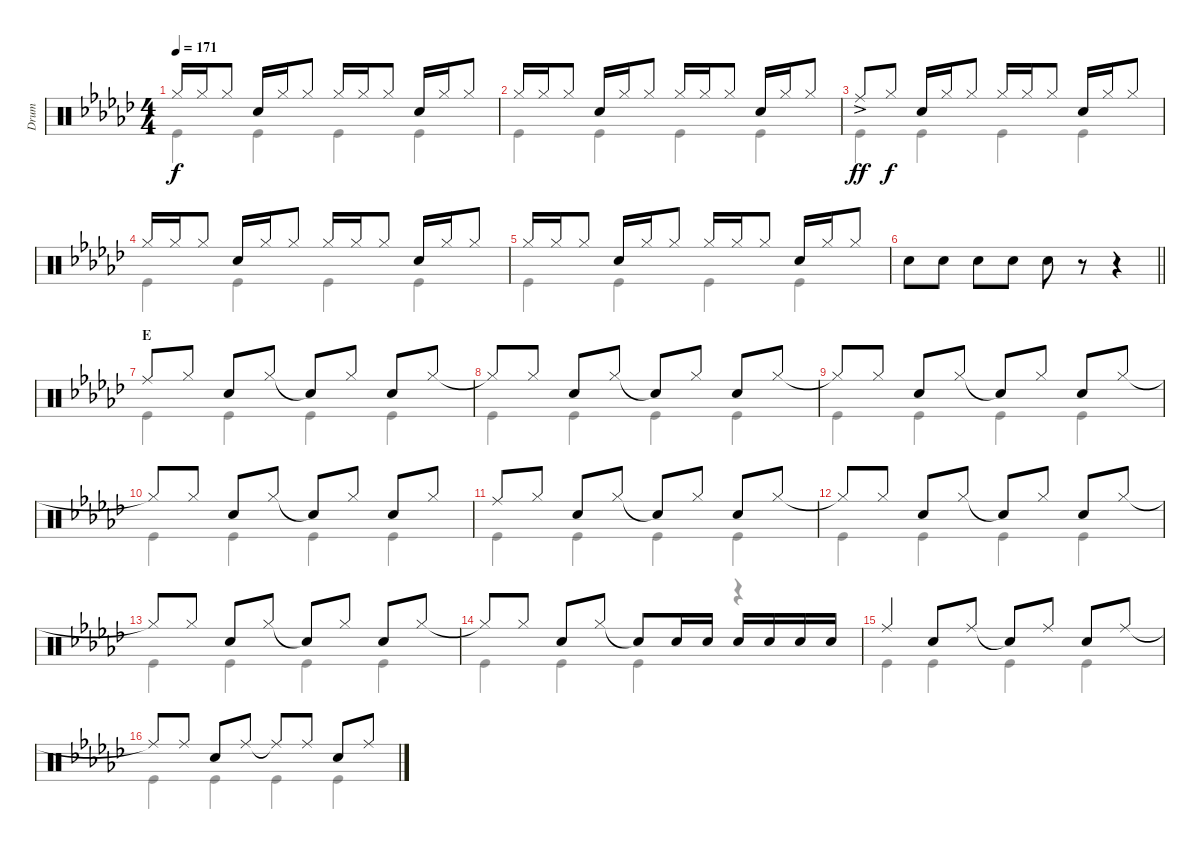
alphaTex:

\track ("Drum" "Drum") {instrument percussion}
\staff {score}
\articulation defaults
\voice
\ts (4 4)
\tempo 171
\clef neutral
\ks gb "Hi-Hat (closed)".16{dy f} "Hi-Hat (closed)".16 "Hi-Hat (closed)".8 "Snare (hit) 2".16 "Hi-Hat (closed)".16 "Hi-Hat (closed)".8 "Hi-Hat (closed)".16 "Hi-Hat (closed)".16 "Hi-Hat (closed)".8 "Snare (hit) 2".16 "Hi-Hat (closed)".16 "Hi-Hat (closed)".8
|
"Hi-Hat (closed)".16 "Hi-Hat (closed)".16 "Hi-Hat (closed)".8 "Snare (hit) 2".16 "Hi-Hat (closed)".16 "Hi-Hat (closed)".8 "Hi-Hat (closed)".16 "Hi-Hat (closed)".16 "Hi-Hat (closed)".8 "Snare (hit) 2".16 "Hi-Hat (closed)".16 "Hi-Hat (closed)".8 |
"Ride (middle)"{ac}.8{dy ff} "Hi-Hat (closed)".8{dy f} "Snare (hit) 2".16 "Hi-Hat (closed)".16 "Hi-Hat (closed)".8 "Hi-Hat (closed)".16 "Hi-Hat (closed)".16 "Hi-Hat (closed)".8 "Snare (hit) 2".16 "Hi-Hat (closed)".16 "Hi-Hat (closed)".8 |
"Hi-Hat (closed)".16 "Hi-Hat (closed)".16 "Hi-Hat (closed)".8 "Snare (hit) 2".16 "Hi-Hat (closed)".16 "Hi-Hat (closed)".8 "Hi-Hat (closed)".16 "Hi-Hat (closed)".16 "Hi-Hat (closed)".8 "Snare (hit) 2".16 "Hi-Hat (closed)".16 "Hi-Hat (closed)".8 |
"Hi-Hat (closed)".16 "Hi-Hat (closed)".16 "Hi-Hat (closed)".8 "Snare (hit) 2".16 "Hi-Hat (closed)".16 "Hi-Hat (closed)".8 "Hi-Hat (closed)".16 "Hi-Hat (closed)".16 "Hi-Hat (closed)".8 "Snare (hit) 2".16 "Hi-Hat (closed)".16 "Hi-Hat (closed)".8 |
\barLineRight lightlight "Snare (hit) 2".8 "Snare (hit) 2".8 "Snare (hit) 2".8 "Snare (hit) 2".8 "Snare (hit) 2".8
r.8 r.4 |
\section ("" "E")
"Ride (middle)".8 "Hi-Hat (closed)".8 "Snare (hit) 2".8 "Hi-Hat (closed)".8 "Snare (hit)"{t}.8 "Hi-Hat (closed)".8 "Snare (hit) 2".8 "Hi-Hat (closed)".8 |
"Hi-Hat (closed)"{t}.8 "Hi-Hat (closed)".8 "Snare (hit) 2".8 "Hi-Hat (closed)".8 "Snare (hit)"{t}.8 "Hi-Hat (closed)".8 "Snare (hit) 2".8 "Hi-Hat (closed)".8 |
"Hi-Hat (closed)"{t}.8 "Hi-Hat (closed)".8 "Snare (hit) 2".8 "Hi-Hat (closed)".8 "Snare (hit)"{t}.8 "Hi-Hat (closed)".8 "Snare (hit) 2".8 "Hi-Hat (closed)".8 |
"Hi-Hat (closed)"{t}.8 "Hi-Hat (closed)".8 "Snare (hit) 2".8 "Hi-Hat (closed)".8 "Snare (hit)"{t}.8 "Hi-Hat (closed)".8 "Snare (hit) 2".8 "Hi-Hat (closed)".8 |
"Ride (middle)".8 "Hi-Hat (closed)".8 "Snare (hit) 2".8 "Hi-Hat (closed)".8 "Snare (hit)"{t}.8 "Hi-Hat (closed)".8 "Snare (hit) 2".8 "Hi-Hat (closed)".8 |
"Hi-Hat (closed)"{t}.8 "Hi-Hat (closed)".8 "Snare (hit) 2".8 "Hi-Hat (closed)".8 "Snare (hit)"{t}.8 "Hi-Hat (closed)".8 "Snare (hit) 2".8 "Hi-Hat (closed)".8 |
"Hi-Hat (closed)"{t}.8 "Hi-Hat (closed)".8 "Snare (hit) 2".8 "Hi-Hat (closed)".8 "Snare (hit)"{t}.8 "Hi-Hat (closed)".8 "Snare (hit) 2".8 "Hi-Hat (closed)".8 |
"Hi-Hat (closed)"{t}.8 "Hi-Hat (closed)".8 "Snare (hit) 2".8 "Hi-Hat (closed)".8 "Snare (hit)"{t}.8 "Snare (hit) 2".16 "Snare (hit) 2".16 "Snare (hit) 2".16 "Snare (hit) 2".16 "Snare (hit) 2".16 "Snare (hit) 2".16 |
"Ride (middle)".4 "Snare (hit) 2".8 "Ride (middle)".8 "Snare (hit)"{t}.8 "Ride (middle)".8 "Snare (hit) 2".8 "Ride (middle)".8 |
"Ride (middle)"{t}.8 "Ride (middle)".8 "Snare (hit) 2".8 "Ride (middle)".8 "Ride (middle)"{t}.8 "Ride (middle)".8 "Snare (hit) 2".8 "Ride (middle)".8
\voice
\clef neutral
\ottava regular
\simile none
\ks gb "Kick (hit)".4{dy f} "Kick (hit)".4 "Kick (hit)".4 "Kick (hit)".4
|
"Kick (hit)".4 "Kick (hit)".4 "Kick (hit)".4 "Kick (hit)".4 |
"Kick (hit)".4 "Kick (hit)".4 "Kick (hit)".4 "Kick (hit)".4 |
"Kick (hit)".4 "Kick (hit)".4 "Kick (hit)".4 "Kick (hit)".4 |
"Kick (hit)".4 "Kick (hit)".4 "Kick (hit)".4 "Kick (hit)".4 |
\barLineRight lightlight
|
"Kick (hit)".4 "Kick (hit)".4 "Kick (hit)".4 "Kick (hit)".4 |
"Kick (hit)".4 "Kick (hit)".4 "Kick (hit)".4 "Kick (hit)".4 |
"Kick (hit)".4 "Kick (hit)".4 "Kick (hit)".4 "Kick (hit)".4 |
"Kick (hit)".4 "Kick (hit)".4 "Kick (hit)".4 "Kick (hit)".4 |
"Kick (hit)".4 "Kick (hit)".4 "Kick (hit)".4 "Kick (hit)".4 |
"Kick (hit)".4 "Kick (hit)".4 "Kick (hit)".4 "Kick (hit)".4 |
"Kick (hit)".4 "Kick (hit)".4 "Kick (hit)".4 "Kick (hit)".4 |
"Kick (hit)".4 "Kick (hit)".4 "Kick (hit)".4 r.4 |
"Kick (hit)".4 "Kick (hit)".4 "Kick (hit)".4 "Kick (hit)".4 |
"Kick (hit)".4 "Kick (hit)".4 "Kick (hit)".4 "Kick (hit)".4
